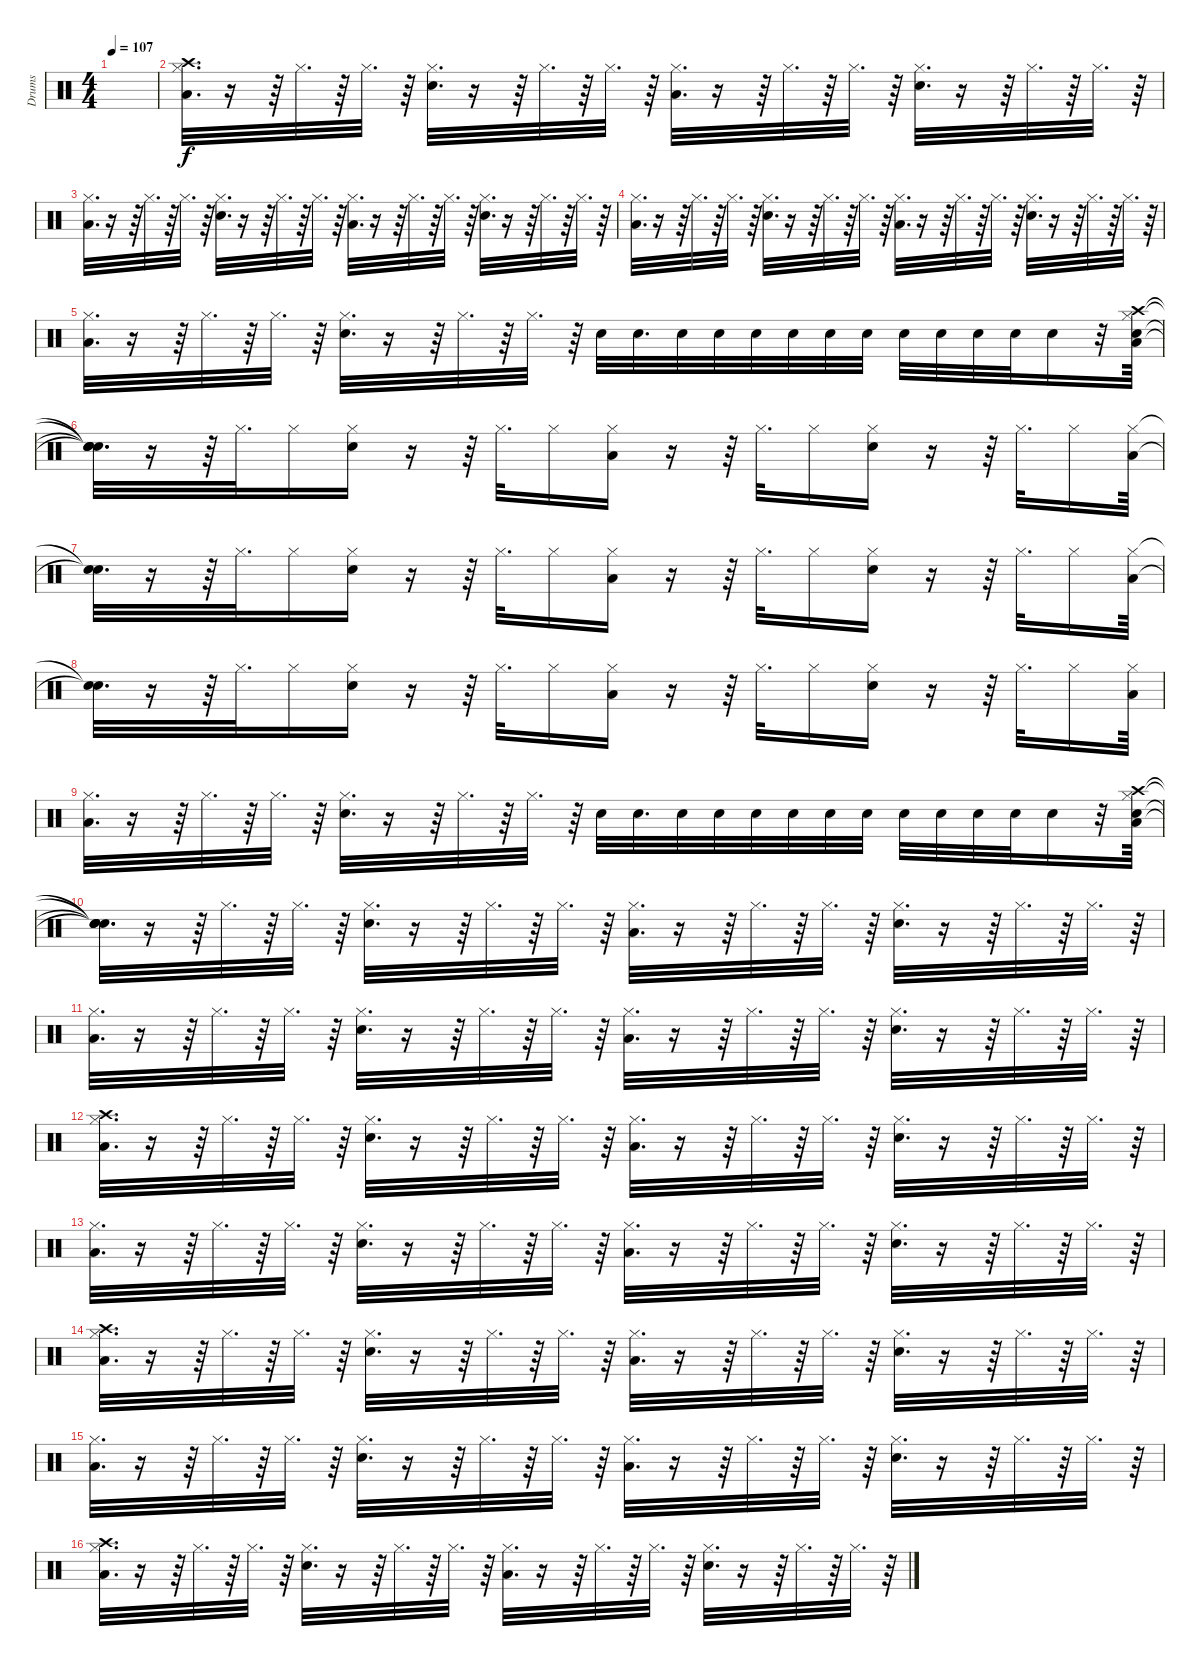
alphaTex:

\track ("Drums" "Drums") {instrument percussion}
\staff {score}
\articulation defaults
\ts (4 4)
\tempo 107
\clef neutral
\ks c
|
("Hi-Hat (closed)" "Crash high (hit)" "Low Tom (hit)").32{d} r.16 r.64 "Hi-Hat (closed)".32{d} r.64 "Hi-Hat (closed)".32{d} r.64 ("Hi-Hat (closed)" "Snare (hit) 2").32{d} r.16 r.64 "Hi-Hat (closed)".32{d} r.64 "Hi-Hat (closed)".32{d} r.64 ("Hi-Hat (closed)" "Low Tom (hit)").32{d} r.16 r.64 "Hi-Hat (closed)".32{d} r.64 "Hi-Hat (closed)".32{d} r.64 ("Hi-Hat (closed)" "Snare (hit) 2").32{d} r.16 r.64 "Hi-Hat (closed)".32{d} r.64 "Hi-Hat (closed)".32{d} r.64 |
("Hi-Hat (closed)" "Low Tom (hit)").32{d} r.16 r.64 "Hi-Hat (closed)".32{d} r.64 "Hi-Hat (closed)".32{d} r.64 ("Hi-Hat (closed)" "Snare (hit) 2").32{d} r.16 r.64 "Hi-Hat (closed)".32{d} r.64 "Hi-Hat (closed)".32{d} r.64 ("Hi-Hat (closed)" "Low Tom (hit)").32{d} r.16 r.64 "Hi-Hat (closed)".32{d} r.64 "Hi-Hat (closed)".32{d} r.64 ("Hi-Hat (closed)" "Snare (hit) 2").32{d} r.16 r.64 "Hi-Hat (closed)".32{d} r.64 "Hi-Hat (closed)".32{d} r.64 |
("Hi-Hat (closed)" "Low Tom (hit)").32{d} r.16 r.64 "Hi-Hat (closed)".32{d} r.64 "Hi-Hat (closed)".32{d} r.64 ("Hi-Hat (closed)" "Snare (hit) 2").32{d} r.16 r.64 "Hi-Hat (closed)".32{d} r.64 "Hi-Hat (closed)".32{d} r.64 ("Hi-Hat (closed)" "Low Tom (hit)").32{d} r.16 r.64 "Hi-Hat (closed)".32{d} r.64 "Hi-Hat (closed)".32{d} r.64 ("Hi-Hat (closed)" "Snare (hit) 2").32{d} r.16 r.64 "Hi-Hat (closed)".32{d} r.64 "Hi-Hat (closed)".32{d} r.64 |
("Hi-Hat (closed)" "Low Tom (hit)").32{d} r.16 r.64 "Hi-Hat (closed)".32{d} r.64 "Hi-Hat (closed)".32{d} r.64 ("Hi-Hat (closed)" "Snare (hit) 2").32{d} r.16 r.64 "Hi-Hat (closed)".32{d} r.64 "Hi-Hat (closed)".32{d} r.64 "Snare (hit) 2".32 "Snare (hit) 2".32{d} "Snare (hit) 2".32 "Snare (hit) 2".32 "Snare (hit) 2".32 "Snare (hit) 2".32 "Snare (hit) 2".32 "Snare (hit) 2".32 "Snare (hit) 2".32 "Snare (hit) 2".32 "Snare (hit) 2".32 "Snare (hit) 2".32 "Snare (hit) 2".16 r.32 ("Hi-Hat (closed)" "Crash high (hit)" "Low Tom (hit)" "Snare (hit) 2").64 |
("Snare (hit)"{t} "Snare (hit)"{t} "Snare (hit)"{t} "Snare (hit)"{t}).32{d} r.16 r.64 "Hi-Hat (closed)".32{d} "Hi-Hat (closed)".16 ("Hi-Hat (closed)" "Snare (hit) 2").16 r.16 r.64 "Hi-Hat (closed)".32{d} "Hi-Hat (closed)".16 ("Hi-Hat (closed)" "Low Tom (hit)").16 r.16 r.64 "Hi-Hat (closed)".32{d} "Hi-Hat (closed)".16 ("Hi-Hat (closed)" "Snare (hit) 2").16 r.16 r.64 "Hi-Hat (closed)".32{d} "Hi-Hat (closed)".16 ("Hi-Hat (closed)" "Low Tom (hit)").64 |
("Snare (hit)"{t} "Snare (hit)"{t}).32{d} r.16 r.64 "Hi-Hat (closed)".32{d} "Hi-Hat (closed)".16 ("Hi-Hat (closed)" "Snare (hit) 2").16 r.16 r.64 "Hi-Hat (closed)".32{d} "Hi-Hat (closed)".16 ("Hi-Hat (closed)" "Low Tom (hit)").16 r.16 r.64 "Hi-Hat (closed)".32{d} "Hi-Hat (closed)".16 ("Hi-Hat (closed)" "Snare (hit) 2").16 r.16 r.64 "Hi-Hat (closed)".32{d} "Hi-Hat (closed)".16 ("Hi-Hat (closed)" "Low Tom (hit)").64 |
("Snare (hit)"{t} "Snare (hit)"{t}).32{d} r.16 r.64 "Hi-Hat (closed)".32{d} "Hi-Hat (closed)".16 ("Hi-Hat (closed)" "Snare (hit) 2").16 r.16 r.64 "Hi-Hat (closed)".32{d} "Hi-Hat (closed)".16 ("Hi-Hat (closed)" "Low Tom (hit)").16 r.16 r.64 "Hi-Hat (closed)".32{d} "Hi-Hat (closed)".16 ("Hi-Hat (closed)" "Snare (hit) 2").16 r.16 r.64 "Hi-Hat (closed)".32{d} "Hi-Hat (closed)".16 ("Hi-Hat (closed)" "Low Tom (hit)").64 |
("Hi-Hat (closed)" "Low Tom (hit)").32{d} r.16 r.64 "Hi-Hat (closed)".32{d} r.64 "Hi-Hat (closed)".32{d} r.64 ("Hi-Hat (closed)" "Snare (hit) 2").32{d} r.16 r.64 "Hi-Hat (closed)".32{d} r.64 "Hi-Hat (closed)".32{d} r.64 "Snare (hit) 2".32 "Snare (hit) 2".32{d} "Snare (hit) 2".32 "Snare (hit) 2".32 "Snare (hit) 2".32 "Snare (hit) 2".32 "Snare (hit) 2".32 "Snare (hit) 2".32 "Snare (hit) 2".32 "Snare (hit) 2".32 "Snare (hit) 2".32 "Snare (hit) 2".32 "Snare (hit) 2".16 r.32 ("Hi-Hat (closed)" "Crash high (hit)" "Low Tom (hit)" "Snare (hit) 2").64 |
("Snare (hit)"{t} "Snare (hit)"{t} "Snare (hit)"{t} "Snare (hit)"{t}).32{d} r.16 r.64 "Hi-Hat (closed)".32{d} r.64 "Hi-Hat (closed)".32{d} r.64 ("Hi-Hat (closed)" "Snare (hit) 2").32{d} r.16 r.64 "Hi-Hat (closed)".32{d} r.64 "Hi-Hat (closed)".32{d} r.64 ("Hi-Hat (closed)" "Low Tom (hit)").32{d} r.16 r.64 "Hi-Hat (closed)".32{d} r.64 "Hi-Hat (closed)".32{d} r.64 ("Hi-Hat (closed)" "Snare (hit) 2").32{d} r.16 r.64 "Hi-Hat (closed)".32{d} r.64 "Hi-Hat (closed)".32{d} r.64 |
("Hi-Hat (closed)" "Low Tom (hit)").32{d} r.16 r.64 "Hi-Hat (closed)".32{d} r.64 "Hi-Hat (closed)".32{d} r.64 ("Hi-Hat (closed)" "Snare (hit) 2").32{d} r.16 r.64 "Hi-Hat (closed)".32{d} r.64 "Hi-Hat (closed)".32{d} r.64 ("Hi-Hat (closed)" "Low Tom (hit)").32{d} r.16 r.64 "Hi-Hat (closed)".32{d} r.64 "Hi-Hat (closed)".32{d} r.64 ("Hi-Hat (closed)" "Snare (hit) 2").32{d} r.16 r.64 "Hi-Hat (closed)".32{d} r.64 "Hi-Hat (closed)".32{d} r.64 |
("Hi-Hat (closed)" "Crash high (hit)" "Low Tom (hit)").32{d} r.16 r.64 "Hi-Hat (closed)".32{d} r.64 "Hi-Hat (closed)".32{d} r.64 ("Hi-Hat (closed)" "Snare (hit) 2").32{d} r.16 r.64 "Hi-Hat (closed)".32{d} r.64 "Hi-Hat (closed)".32{d} r.64 ("Hi-Hat (closed)" "Low Tom (hit)").32{d} r.16 r.64 "Hi-Hat (closed)".32{d} r.64 "Hi-Hat (closed)".32{d} r.64 ("Hi-Hat (closed)" "Snare (hit) 2").32{d} r.16 r.64 "Hi-Hat (closed)".32{d} r.64 "Hi-Hat (closed)".32{d} r.64 |
("Hi-Hat (closed)" "Low Tom (hit)").32{d} r.16 r.64 "Hi-Hat (closed)".32{d} r.64 "Hi-Hat (closed)".32{d} r.64 ("Hi-Hat (closed)" "Snare (hit) 2").32{d} r.16 r.64 "Hi-Hat (closed)".32{d} r.64 "Hi-Hat (closed)".32{d} r.64 ("Hi-Hat (closed)" "Low Tom (hit)").32{d} r.16 r.64 "Hi-Hat (closed)".32{d} r.64 "Hi-Hat (closed)".32{d} r.64 ("Hi-Hat (closed)" "Snare (hit) 2").32{d} r.16 r.64 "Hi-Hat (closed)".32{d} r.64 "Hi-Hat (closed)".32{d} r.64 |
("Hi-Hat (closed)" "Crash high (hit)" "Low Tom (hit)").32{d} r.16 r.64 "Hi-Hat (closed)".32{d} r.64 "Hi-Hat (closed)".32{d} r.64 ("Hi-Hat (closed)" "Snare (hit) 2").32{d} r.16 r.64 "Hi-Hat (closed)".32{d} r.64 "Hi-Hat (closed)".32{d} r.64 ("Hi-Hat (closed)" "Low Tom (hit)").32{d} r.16 r.64 "Hi-Hat (closed)".32{d} r.64 "Hi-Hat (closed)".32{d} r.64 ("Hi-Hat (closed)" "Snare (hit) 2").32{d} r.16 r.64 "Hi-Hat (closed)".32{d} r.64 "Hi-Hat (closed)".32{d} r.64 |
("Hi-Hat (closed)" "Low Tom (hit)").32{d} r.16 r.64 "Hi-Hat (closed)".32{d} r.64 "Hi-Hat (closed)".32{d} r.64 ("Hi-Hat (closed)" "Snare (hit) 2").32{d} r.16 r.64 "Hi-Hat (closed)".32{d} r.64 "Hi-Hat (closed)".32{d} r.64 ("Hi-Hat (closed)" "Low Tom (hit)").32{d} r.16 r.64 "Hi-Hat (closed)".32{d} r.64 "Hi-Hat (closed)".32{d} r.64 ("Hi-Hat (closed)" "Snare (hit) 2").32{d} r.16 r.64 "Hi-Hat (closed)".32{d} r.64 "Hi-Hat (closed)".32{d} r.64 |
("Hi-Hat (closed)" "Crash high (hit)" "Low Tom (hit)").32{d} r.16 r.64 "Hi-Hat (closed)".32{d} r.64 "Hi-Hat (closed)".32{d} r.64 ("Hi-Hat (closed)" "Snare (hit) 2").32{d} r.16 r.64 "Hi-Hat (closed)".32{d} r.64 "Hi-Hat (closed)".32{d} r.64 ("Hi-Hat (closed)" "Low Tom (hit)").32{d} r.16 r.64 "Hi-Hat (closed)".32{d} r.64 "Hi-Hat (closed)".32{d} r.64 ("Hi-Hat (closed)" "Snare (hit) 2").32{d} r.16 r.64 "Hi-Hat (closed)".32{d} r.64 "Hi-Hat (closed)".32{d} r.64
